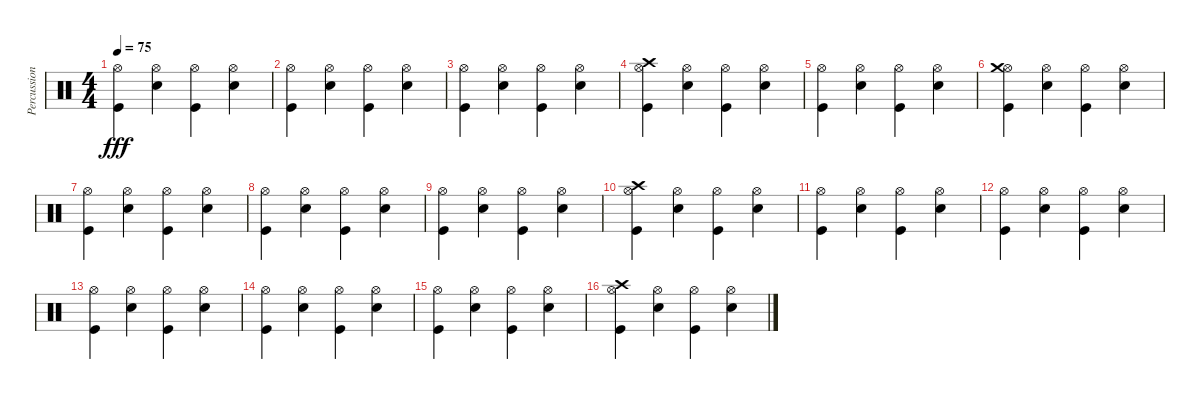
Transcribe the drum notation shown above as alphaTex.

\track ("Percussion" "Percussion") {instrument percussion}
\staff {score}
\articulation defaults
\ts (4 4)
\tempo 75
\clef neutral
\ks c
("Hi-Hat (open)" "Kick (hit)").4{dy fff} ("Hi-Hat (open)" "Snare (hit) 2").4 ("Hi-Hat (open)" "Kick (hit)").4 ("Hi-Hat (open)" "Snare (hit) 2").4 |
("Hi-Hat (open)" "Kick (hit)").4 ("Hi-Hat (open)" "Snare (hit) 2").4 ("Hi-Hat (open)" "Kick (hit)").4 ("Hi-Hat (open)" "Snare (hit) 2").4 |
("Hi-Hat (open)" "Kick (hit)").4 ("Hi-Hat (open)" "Snare (hit) 2").4 ("Hi-Hat (open)" "Kick (hit)").4 ("Hi-Hat (open)" "Snare (hit) 2").4 |
("Hi-Hat (open)" "Crash high (hit)" "Kick (hit)").4 ("Hi-Hat (open)" "Snare (hit) 2").4 ("Hi-Hat (open)" "Kick (hit)").4 ("Hi-Hat (open)" "Snare (hit) 2").4 |
("Hi-Hat (open)" "Kick (hit)").4 ("Hi-Hat (open)" "Electric Snare (hit)").4 ("Hi-Hat (open)" "Kick (hit)").4 ("Hi-Hat (open)" "Electric Snare (hit)").4 |
("Hi-Hat (open)" "Crash medium (hit)" "Kick (hit)").4 ("Hi-Hat (open)" "Snare (hit) 2").4 ("Hi-Hat (open)" "Kick (hit)").4 ("Hi-Hat (open)" "Snare (hit) 2").4 |
("Hi-Hat (open)" "Kick (hit)").4 ("Hi-Hat (open)" "Snare (hit) 2").4 ("Hi-Hat (open)" "Kick (hit)").4 ("Hi-Hat (open)" "Snare (hit) 2").4 |
("Hi-Hat (open)" "Kick (hit)").4 ("Hi-Hat (open)" "Snare (hit) 2").4 ("Hi-Hat (open)" "Kick (hit)").4 ("Hi-Hat (open)" "Snare (hit) 2").4 |
("Hi-Hat (open)" "Kick (hit)").4 ("Hi-Hat (open)" "Snare (hit) 2").4 ("Hi-Hat (open)" "Kick (hit)").4 ("Hi-Hat (open)" "Snare (hit) 2").4 |
("Hi-Hat (open)" "Crash high (hit)" "Kick (hit)").4 ("Hi-Hat (open)" "Snare (hit) 2").4 ("Hi-Hat (open)" "Kick (hit)").4 ("Hi-Hat (open)" "Snare (hit) 2").4 |
("Hi-Hat (open)" "Kick (hit)").4 ("Hi-Hat (open)" "Snare (hit) 2").4 ("Hi-Hat (open)" "Kick (hit)").4 ("Hi-Hat (open)" "Snare (hit) 2").4 |
("Hi-Hat (open)" "Kick (hit)").4 ("Hi-Hat (open)" "Snare (hit) 2").4 ("Hi-Hat (open)" "Kick (hit)").4 ("Hi-Hat (open)" "Snare (hit) 2").4 |
("Hi-Hat (open)" "Kick (hit)").4 ("Hi-Hat (open)" "Snare (hit) 2").4 ("Hi-Hat (open)" "Kick (hit)").4 ("Hi-Hat (open)" "Snare (hit) 2").4 |
("Hi-Hat (open)" "Kick (hit)").4 ("Hi-Hat (open)" "Snare (hit) 2").4 ("Hi-Hat (open)" "Kick (hit)").4 ("Hi-Hat (open)" "Snare (hit) 2").4 |
("Hi-Hat (open)" "Kick (hit)").4 ("Hi-Hat (open)" "Snare (hit) 2").4 ("Hi-Hat (open)" "Kick (hit)").4 ("Hi-Hat (open)" "Snare (hit) 2").4 |
("Hi-Hat (open)" "Crash high (hit)" "Kick (hit)").4 ("Hi-Hat (open)" "Snare (hit) 2").4 ("Hi-Hat (open)" "Kick (hit)").4 ("Hi-Hat (open)" "Snare (hit) 2").4
